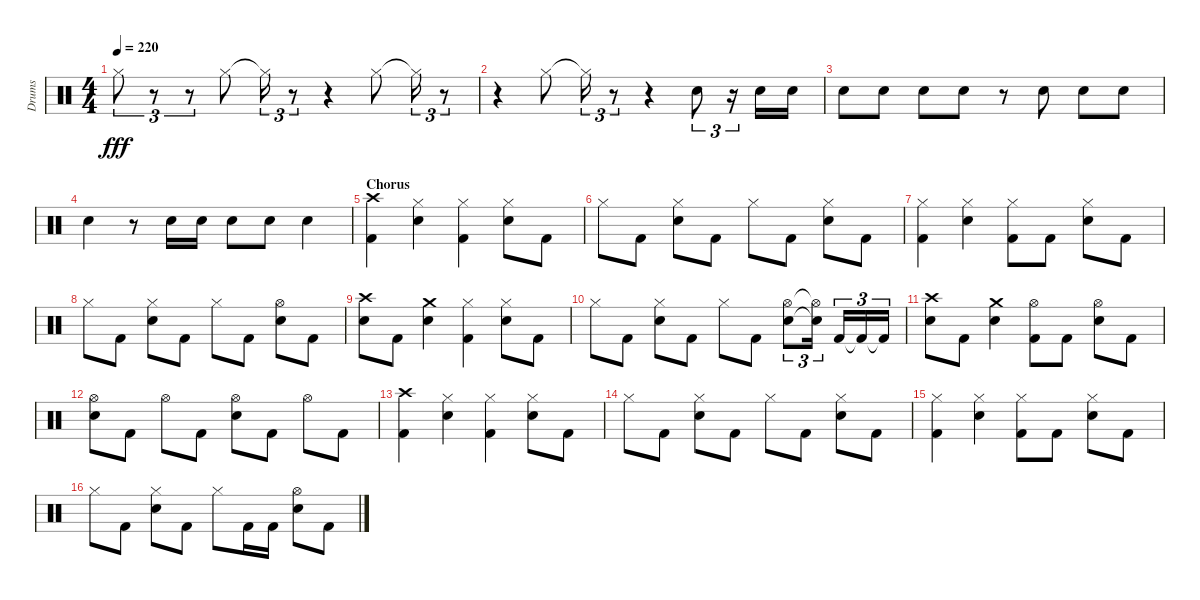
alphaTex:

\track ("Drums" "Drums") {instrument percussion}
\staff {score}
\articulation defaults
\ts (4 4)
\tempo 220
\clef neutral
\ks aminor "Hi-Hat (closed)"{t}.8{tu (3 2) dy fff}
r.8{tu (3 2)} r.8{tu (3 2)} "Hi-Hat (closed)".8 "Hi-Hat (closed)"{t}.16{tu (3 2)} r.8{tu (3 2)} r.4 "Hi-Hat (closed)".8 "Hi-Hat (closed)"{t}.16{tu (3 2)} r.8{tu (3 2)} |
r.4 "Hi-Hat (closed)".8 "Hi-Hat (closed)"{t}.16{tu (3 2)} r.8{tu (3 2)} r.4 "Snare (hit) 2".8{tu (3 2)} r.16{tu (3 2)} "Snare (hit) 2".16 "Snare (hit) 2".16 |
"Snare (hit) 2".8 "Snare (hit) 2".8 "Snare (hit) 2".8 "Snare (hit) 2".8 r.8 "Snare (hit) 2".8 "Snare (hit) 2".8 "Snare (hit) 2".8 |
"Snare (hit) 2".4 r.8 "Snare (hit) 2".16 "Snare (hit) 2".16 "Snare (hit) 2".8 "Snare (hit) 2".8 "Snare (hit) 2".4 |
\section ("" "Chorus")
("Kick (hit) 2" "Crash high (hit)").4 ("Snare (hit) 2" "Hi-Hat (closed)").4 ("Kick (hit) 2" "Hi-Hat (closed)").4 ("Snare (hit) 2" "Hi-Hat (closed)").8 "Kick (hit) 2".8 |
"Hi-Hat (closed)".8 "Kick (hit) 2".8 ("Snare (hit) 2" "Hi-Hat (closed)").8 "Kick (hit) 2".8 "Hi-Hat (closed)".8 "Kick (hit) 2".8 ("Snare (hit) 2" "Hi-Hat (closed)").8 "Kick (hit) 2".8 |
("Kick (hit) 2" "Hi-Hat (closed)").4 ("Snare (hit) 2" "Hi-Hat (closed)").4 ("Kick (hit) 2" "Hi-Hat (closed)").8 "Kick (hit) 2".8 ("Snare (hit) 2" "Hi-Hat (closed)").8 "Kick (hit) 2".8 |
"Hi-Hat (closed)".8 "Kick (hit) 2".8 ("Snare (hit) 2" "Hi-Hat (closed)").8 "Kick (hit) 2".8 "Hi-Hat (closed)".8 "Kick (hit) 2".8 ("Snare (hit) 2" "Hi-Hat (open)").8 "Kick (hit) 2".8 |
("Snare (hit) 2" "Crash high (hit)").8 "Kick (hit) 2".8 ("Snare (hit) 2" "Crash medium (hit)").4 ("Kick (hit) 2" "Hi-Hat (closed)").4 ("Snare (hit) 2" "Hi-Hat (closed)").8 "Kick (hit) 2".8 |
"Hi-Hat (closed)".8 "Kick (hit) 2".8 ("Snare (hit) 2" "Hi-Hat (closed)").8 "Kick (hit) 2".8 "Hi-Hat (closed)".8 "Kick (hit) 2".8 ("Snare (hit) 2" "Hi-Hat (open)").8{tu (3 2)} ("Snare (hit) 2"{t} "Hi-Hat (open)"{t}).16{tu (3 2)} "Kick (hit) 2".16{tu (3 2)} "Kick (hit) 2"{t}.16{tu (3 2)} "Kick (hit) 2"{t}.16{tu (3 2)} |
("Snare (hit) 2" "Crash high (hit)").8 "Kick (hit) 2".8 ("Snare (hit) 2" "Crash medium (hit)").4 ("Kick (hit) 2" "Hi-Hat (open)").8 "Kick (hit) 2".8 ("Snare (hit) 2" "Hi-Hat (open)").8 "Kick (hit) 2".8 |
("Snare (hit) 2" "Hi-Hat (open)").8 "Kick (hit) 2".8 "Hi-Hat (open)".8 "Kick (hit) 2".8 ("Snare (hit) 2" "Hi-Hat (open)").8 "Kick (hit) 2".8 "Hi-Hat (open)".8 "Kick (hit) 2".8 |
("Kick (hit) 2" "Crash high (hit)").4 ("Snare (hit) 2" "Hi-Hat (closed)").4 ("Kick (hit) 2" "Hi-Hat (closed)").4 ("Snare (hit) 2" "Hi-Hat (closed)").8 "Kick (hit) 2".8 |
"Hi-Hat (closed)".8 "Kick (hit) 2".8 ("Snare (hit) 2" "Hi-Hat (closed)").8 "Kick (hit) 2".8 "Hi-Hat (closed)".8 "Kick (hit) 2".8 ("Snare (hit) 2" "Hi-Hat (closed)").8 "Kick (hit) 2".8 |
("Kick (hit) 2" "Hi-Hat (closed)").4 ("Snare (hit) 2" "Hi-Hat (closed)").4 ("Kick (hit) 2" "Hi-Hat (closed)").8 "Kick (hit) 2".8 ("Snare (hit) 2" "Hi-Hat (closed)").8 "Kick (hit) 2".8 |
"Hi-Hat (closed)".8 "Kick (hit) 2".8 ("Snare (hit) 2" "Hi-Hat (closed)").8 "Kick (hit) 2".8 "Hi-Hat (closed)".8 "Kick (hit) 2".16 "Kick (hit) 2".16 ("Snare (hit) 2" "Hi-Hat (open)").8 "Kick (hit) 2".8
